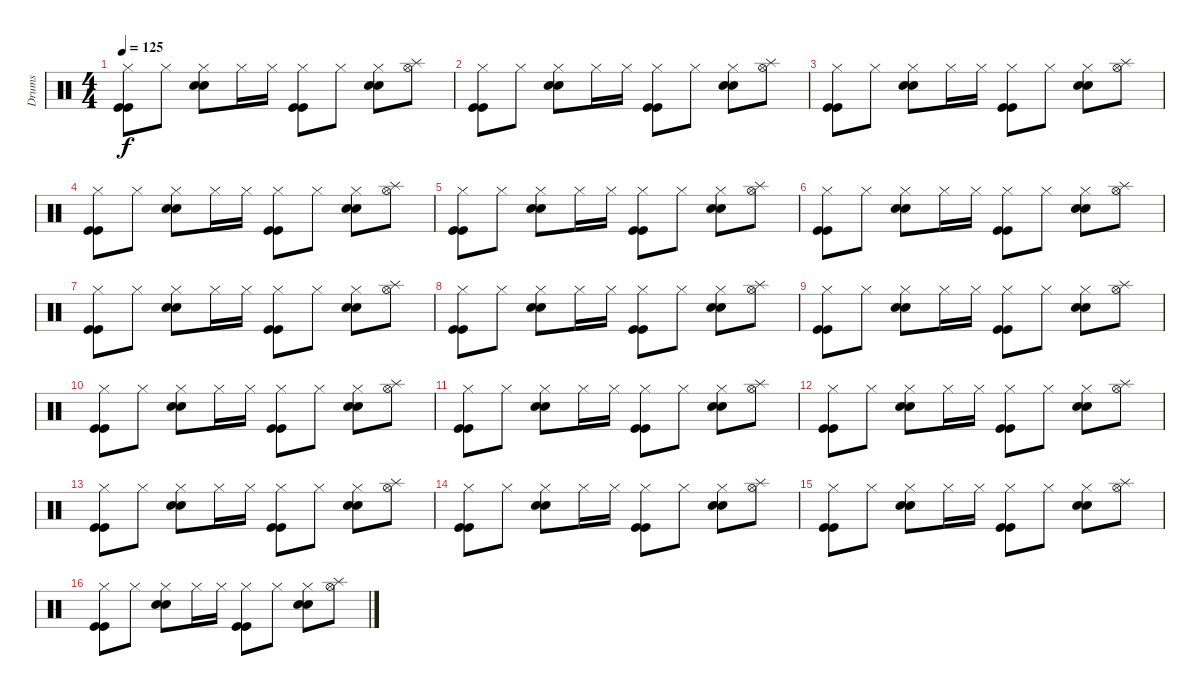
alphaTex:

\track ("Drums" "Drums") {instrument percussion}
\staff {score}
\articulation defaults
\ts (4 4)
\tempo 125
\clef neutral
\ks c
("Hi-Hat (closed)" "Kick (hit)" "Kick (hit)").8{dy f} "Hi-Hat (closed)".8 ("Hi-Hat (closed)" "Electric Snare (hit)" "Electric Snare (hit)").8 "Hi-Hat (closed)".16 "Hi-Hat (closed)".16 ("Hi-Hat (closed)" "Kick (hit)" "Kick (hit)").8 "Hi-Hat (closed)".8 ("Hi-Hat (closed)" "Electric Snare (hit)" "Electric Snare (hit)").8 ("Hi-Hat (open)" "Splash (hit)").8 |
("Hi-Hat (closed)" "Kick (hit)" "Kick (hit)").8 "Hi-Hat (closed)".8 ("Hi-Hat (closed)" "Electric Snare (hit)" "Electric Snare (hit)").8 "Hi-Hat (closed)".16 "Hi-Hat (closed)".16 ("Hi-Hat (closed)" "Kick (hit)" "Kick (hit)").8 "Hi-Hat (closed)".8 ("Hi-Hat (closed)" "Electric Snare (hit)" "Electric Snare (hit)").8 ("Hi-Hat (open)" "Splash (hit)").8 |
("Hi-Hat (closed)" "Kick (hit)" "Kick (hit)").8 "Hi-Hat (closed)".8 ("Hi-Hat (closed)" "Electric Snare (hit)" "Electric Snare (hit)").8 "Hi-Hat (closed)".16 "Hi-Hat (closed)".16 ("Hi-Hat (closed)" "Kick (hit)" "Kick (hit)").8 "Hi-Hat (closed)".8 ("Hi-Hat (closed)" "Electric Snare (hit)" "Electric Snare (hit)").8 ("Hi-Hat (open)" "Splash (hit)").8 |
("Hi-Hat (closed)" "Kick (hit)" "Kick (hit)").8 "Hi-Hat (closed)".8 ("Hi-Hat (closed)" "Electric Snare (hit)" "Electric Snare (hit)").8 "Hi-Hat (closed)".16 "Hi-Hat (closed)".16 ("Hi-Hat (closed)" "Kick (hit)" "Kick (hit)").8 "Hi-Hat (closed)".8 ("Hi-Hat (closed)" "Electric Snare (hit)" "Electric Snare (hit)").8 ("Hi-Hat (open)" "Splash (hit)").8 |
("Hi-Hat (closed)" "Kick (hit)" "Kick (hit)").8 "Hi-Hat (closed)".8 ("Hi-Hat (closed)" "Electric Snare (hit)" "Electric Snare (hit)").8 "Hi-Hat (closed)".16 "Hi-Hat (closed)".16 ("Hi-Hat (closed)" "Kick (hit)" "Kick (hit)").8 "Hi-Hat (closed)".8 ("Hi-Hat (closed)" "Electric Snare (hit)" "Electric Snare (hit)").8 ("Hi-Hat (open)" "Splash (hit)").8 |
("Hi-Hat (closed)" "Kick (hit)" "Kick (hit)").8 "Hi-Hat (closed)".8 ("Hi-Hat (closed)" "Electric Snare (hit)" "Electric Snare (hit)").8 "Hi-Hat (closed)".16 "Hi-Hat (closed)".16 ("Hi-Hat (closed)" "Kick (hit)" "Kick (hit)").8 "Hi-Hat (closed)".8 ("Hi-Hat (closed)" "Electric Snare (hit)" "Electric Snare (hit)").8 ("Hi-Hat (open)" "Splash (hit)").8 |
("Hi-Hat (closed)" "Kick (hit)" "Kick (hit)").8 "Hi-Hat (closed)".8 ("Hi-Hat (closed)" "Electric Snare (hit)" "Electric Snare (hit)").8 "Hi-Hat (closed)".16 "Hi-Hat (closed)".16 ("Hi-Hat (closed)" "Kick (hit)" "Kick (hit)").8 "Hi-Hat (closed)".8 ("Hi-Hat (closed)" "Electric Snare (hit)" "Electric Snare (hit)").8 ("Hi-Hat (open)" "Splash (hit)").8 |
("Hi-Hat (closed)" "Kick (hit)" "Kick (hit)").8 "Hi-Hat (closed)".8 ("Hi-Hat (closed)" "Electric Snare (hit)" "Electric Snare (hit)").8 "Hi-Hat (closed)".16 "Hi-Hat (closed)".16 ("Hi-Hat (closed)" "Kick (hit)" "Kick (hit)").8 "Hi-Hat (closed)".8 ("Hi-Hat (closed)" "Electric Snare (hit)" "Electric Snare (hit)").8 ("Hi-Hat (open)" "Splash (hit)").8 |
("Hi-Hat (closed)" "Kick (hit)" "Kick (hit)").8 "Hi-Hat (closed)".8 ("Hi-Hat (closed)" "Electric Snare (hit)" "Electric Snare (hit)").8 "Hi-Hat (closed)".16 "Hi-Hat (closed)".16 ("Hi-Hat (closed)" "Kick (hit)" "Kick (hit)").8 "Hi-Hat (closed)".8 ("Hi-Hat (closed)" "Electric Snare (hit)" "Electric Snare (hit)").8 ("Hi-Hat (open)" "Splash (hit)").8 |
("Hi-Hat (closed)" "Kick (hit)" "Kick (hit)").8 "Hi-Hat (closed)".8 ("Hi-Hat (closed)" "Electric Snare (hit)" "Electric Snare (hit)").8 "Hi-Hat (closed)".16 "Hi-Hat (closed)".16 ("Hi-Hat (closed)" "Kick (hit)" "Kick (hit)").8 "Hi-Hat (closed)".8 ("Hi-Hat (closed)" "Electric Snare (hit)" "Electric Snare (hit)").8 ("Hi-Hat (open)" "Splash (hit)").8 |
("Hi-Hat (closed)" "Kick (hit)" "Kick (hit)").8 "Hi-Hat (closed)".8 ("Hi-Hat (closed)" "Electric Snare (hit)" "Electric Snare (hit)").8 "Hi-Hat (closed)".16 "Hi-Hat (closed)".16 ("Hi-Hat (closed)" "Kick (hit)" "Kick (hit)").8 "Hi-Hat (closed)".8 ("Hi-Hat (closed)" "Electric Snare (hit)" "Electric Snare (hit)").8 ("Hi-Hat (open)" "Splash (hit)").8 |
("Hi-Hat (closed)" "Kick (hit)" "Kick (hit)").8 "Hi-Hat (closed)".8 ("Hi-Hat (closed)" "Electric Snare (hit)" "Electric Snare (hit)").8 "Hi-Hat (closed)".16 "Hi-Hat (closed)".16 ("Hi-Hat (closed)" "Kick (hit)" "Kick (hit)").8 "Hi-Hat (closed)".8 ("Hi-Hat (closed)" "Electric Snare (hit)" "Electric Snare (hit)").8 ("Hi-Hat (open)" "Splash (hit)").8 |
("Hi-Hat (closed)" "Kick (hit)" "Kick (hit)").8 "Hi-Hat (closed)".8 ("Hi-Hat (closed)" "Electric Snare (hit)" "Electric Snare (hit)").8 "Hi-Hat (closed)".16 "Hi-Hat (closed)".16 ("Hi-Hat (closed)" "Kick (hit)" "Kick (hit)").8 "Hi-Hat (closed)".8 ("Hi-Hat (closed)" "Electric Snare (hit)" "Electric Snare (hit)").8 ("Hi-Hat (open)" "Splash (hit)").8 |
("Hi-Hat (closed)" "Kick (hit)" "Kick (hit)").8{volume 8} "Hi-Hat (closed)".8 ("Hi-Hat (closed)" "Electric Snare (hit)" "Electric Snare (hit)").8 "Hi-Hat (closed)".16 "Hi-Hat (closed)".16 ("Hi-Hat (closed)" "Kick (hit)" "Kick (hit)").8 "Hi-Hat (closed)".8 ("Hi-Hat (closed)" "Electric Snare (hit)" "Electric Snare (hit)").8 ("Hi-Hat (open)" "Splash (hit)").8 |
("Hi-Hat (closed)" "Kick (hit)" "Kick (hit)").8 "Hi-Hat (closed)".8 ("Hi-Hat (closed)" "Electric Snare (hit)" "Electric Snare (hit)").8 "Hi-Hat (closed)".16 "Hi-Hat (closed)".16 ("Hi-Hat (closed)" "Kick (hit)" "Kick (hit)").8 "Hi-Hat (closed)".8 ("Hi-Hat (closed)" "Electric Snare (hit)" "Electric Snare (hit)").8 ("Hi-Hat (open)" "Splash (hit)").8 |
("Hi-Hat (closed)" "Kick (hit)" "Kick (hit)").8{volume 4} "Hi-Hat (closed)".8 ("Hi-Hat (closed)" "Electric Snare (hit)" "Electric Snare (hit)").8 "Hi-Hat (closed)".16 "Hi-Hat (closed)".16 ("Hi-Hat (closed)" "Kick (hit)" "Kick (hit)").8 "Hi-Hat (closed)".8 ("Hi-Hat (closed)" "Electric Snare (hit)" "Electric Snare (hit)").8 ("Hi-Hat (open)" "Splash (hit)").8
